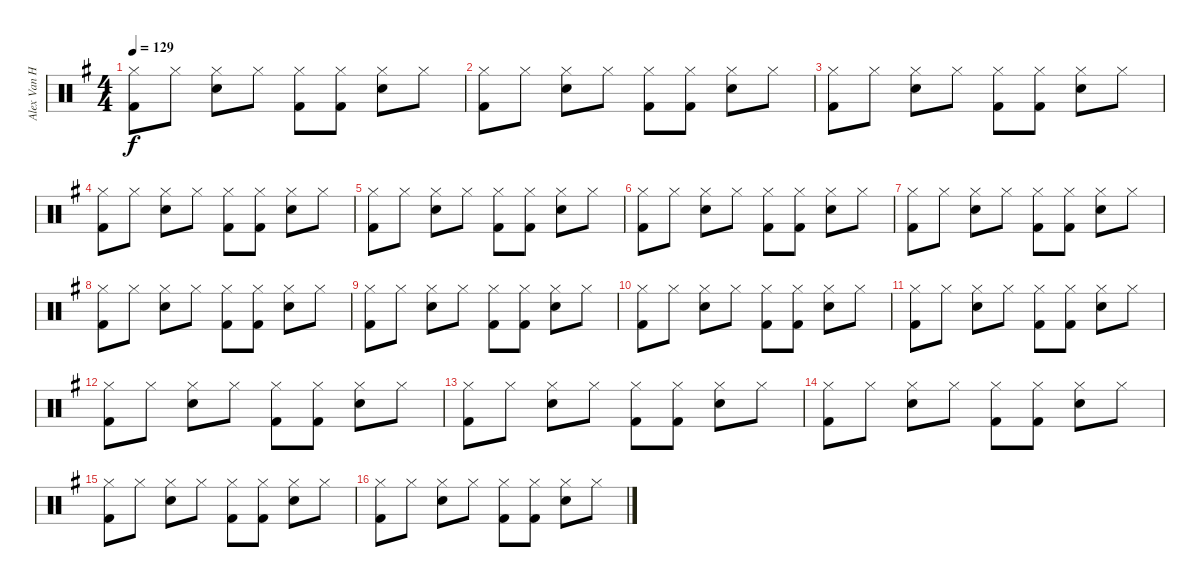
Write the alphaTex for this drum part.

\track ("Alex Van Halen" "Alex Van H") {instrument percussion}
\staff {score}
\articulation defaults
\ts (4 4)
\tempo 129
\clef neutral
\ks eminor
("Hi-Hat (closed)" "Kick (hit) 2").8{dy f} "Hi-Hat (closed)".8 ("Hi-Hat (closed)" "Snare (hit) 2").8 "Hi-Hat (closed)".8 ("Hi-Hat (closed)" "Kick (hit) 2").8 ("Hi-Hat (closed)" "Kick (hit) 2").8 ("Hi-Hat (closed)" "Snare (hit) 2").8 "Hi-Hat (closed)".8 |
("Hi-Hat (closed)" "Kick (hit) 2").8 "Hi-Hat (closed)".8 ("Hi-Hat (closed)" "Snare (hit) 2").8 "Hi-Hat (closed)".8 ("Hi-Hat (closed)" "Kick (hit) 2").8 ("Hi-Hat (closed)" "Kick (hit) 2").8 ("Hi-Hat (closed)" "Snare (hit) 2").8 "Hi-Hat (closed)".8 |
("Hi-Hat (closed)" "Kick (hit) 2").8 "Hi-Hat (closed)".8 ("Hi-Hat (closed)" "Snare (hit) 2").8 "Hi-Hat (closed)".8 ("Hi-Hat (closed)" "Kick (hit) 2").8 ("Hi-Hat (closed)" "Kick (hit) 2").8 ("Hi-Hat (closed)" "Snare (hit) 2").8 "Hi-Hat (closed)".8 |
("Hi-Hat (closed)" "Kick (hit) 2").8 "Hi-Hat (closed)".8 ("Hi-Hat (closed)" "Snare (hit) 2").8 "Hi-Hat (closed)".8 ("Hi-Hat (closed)" "Kick (hit) 2").8 ("Hi-Hat (closed)" "Kick (hit) 2").8 ("Hi-Hat (closed)" "Snare (hit) 2").8 "Hi-Hat (closed)".8 |
("Hi-Hat (closed)" "Kick (hit) 2").8 "Hi-Hat (closed)".8 ("Hi-Hat (closed)" "Snare (hit) 2").8 "Hi-Hat (closed)".8 ("Hi-Hat (closed)" "Kick (hit) 2").8 ("Hi-Hat (closed)" "Kick (hit) 2").8 ("Hi-Hat (closed)" "Snare (hit) 2").8 "Hi-Hat (closed)".8 |
("Hi-Hat (closed)" "Kick (hit) 2").8 "Hi-Hat (closed)".8 ("Hi-Hat (closed)" "Snare (hit) 2").8 "Hi-Hat (closed)".8 ("Hi-Hat (closed)" "Kick (hit) 2").8 ("Hi-Hat (closed)" "Kick (hit) 2").8 ("Hi-Hat (closed)" "Snare (hit) 2").8 "Hi-Hat (closed)".8 |
("Hi-Hat (closed)" "Kick (hit) 2").8 "Hi-Hat (closed)".8 ("Hi-Hat (closed)" "Snare (hit) 2").8 "Hi-Hat (closed)".8 ("Hi-Hat (closed)" "Kick (hit) 2").8 ("Hi-Hat (closed)" "Kick (hit) 2").8 ("Hi-Hat (closed)" "Snare (hit) 2").8 "Hi-Hat (closed)".8 |
("Hi-Hat (closed)" "Kick (hit) 2").8 "Hi-Hat (closed)".8 ("Hi-Hat (closed)" "Snare (hit) 2").8 "Hi-Hat (closed)".8 ("Hi-Hat (closed)" "Kick (hit) 2").8 ("Hi-Hat (closed)" "Kick (hit) 2").8 ("Hi-Hat (closed)" "Snare (hit) 2").8 "Hi-Hat (closed)".8 |
("Hi-Hat (closed)" "Kick (hit) 2").8 "Hi-Hat (closed)".8 ("Hi-Hat (closed)" "Snare (hit) 2").8 "Hi-Hat (closed)".8 ("Hi-Hat (closed)" "Kick (hit) 2").8 ("Hi-Hat (closed)" "Kick (hit) 2").8 ("Hi-Hat (closed)" "Snare (hit) 2").8 "Hi-Hat (closed)".8 |
("Hi-Hat (closed)" "Kick (hit) 2").8 "Hi-Hat (closed)".8 ("Hi-Hat (closed)" "Snare (hit) 2").8 "Hi-Hat (closed)".8 ("Hi-Hat (closed)" "Kick (hit) 2").8 ("Hi-Hat (closed)" "Kick (hit) 2").8 ("Hi-Hat (closed)" "Snare (hit) 2").8 "Hi-Hat (closed)".8 |
("Hi-Hat (closed)" "Kick (hit) 2").8 "Hi-Hat (closed)".8 ("Hi-Hat (closed)" "Snare (hit) 2").8 "Hi-Hat (closed)".8 ("Hi-Hat (closed)" "Kick (hit) 2").8 ("Hi-Hat (closed)" "Kick (hit) 2").8 ("Hi-Hat (closed)" "Snare (hit) 2").8 "Hi-Hat (closed)".8 |
("Hi-Hat (closed)" "Kick (hit) 2").8 "Hi-Hat (closed)".8 ("Hi-Hat (closed)" "Snare (hit) 2").8 "Hi-Hat (closed)".8 ("Hi-Hat (closed)" "Kick (hit) 2").8 ("Hi-Hat (closed)" "Kick (hit) 2").8 ("Hi-Hat (closed)" "Snare (hit) 2").8 "Hi-Hat (closed)".8 |
("Hi-Hat (closed)" "Kick (hit) 2").8 "Hi-Hat (closed)".8 ("Hi-Hat (closed)" "Snare (hit) 2").8 "Hi-Hat (closed)".8 ("Hi-Hat (closed)" "Kick (hit) 2").8 ("Hi-Hat (closed)" "Kick (hit) 2").8 ("Hi-Hat (closed)" "Snare (hit) 2").8 "Hi-Hat (closed)".8 |
("Hi-Hat (closed)" "Kick (hit) 2").8 "Hi-Hat (closed)".8 ("Hi-Hat (closed)" "Snare (hit) 2").8 "Hi-Hat (closed)".8 ("Hi-Hat (closed)" "Kick (hit) 2").8 ("Hi-Hat (closed)" "Kick (hit) 2").8 ("Hi-Hat (closed)" "Snare (hit) 2").8 "Hi-Hat (closed)".8 |
("Hi-Hat (closed)" "Kick (hit) 2").8 "Hi-Hat (closed)".8 ("Hi-Hat (closed)" "Snare (hit) 2").8 "Hi-Hat (closed)".8 ("Hi-Hat (closed)" "Kick (hit) 2").8 ("Hi-Hat (closed)" "Kick (hit) 2").8 ("Hi-Hat (closed)" "Snare (hit) 2").8 "Hi-Hat (closed)".8 |
("Hi-Hat (closed)" "Kick (hit) 2").8 "Hi-Hat (closed)".8 ("Hi-Hat (closed)" "Snare (hit) 2").8 "Hi-Hat (closed)".8 ("Hi-Hat (closed)" "Kick (hit) 2").8 ("Hi-Hat (closed)" "Kick (hit) 2").8 ("Hi-Hat (closed)" "Snare (hit) 2").8 "Hi-Hat (closed)".8
